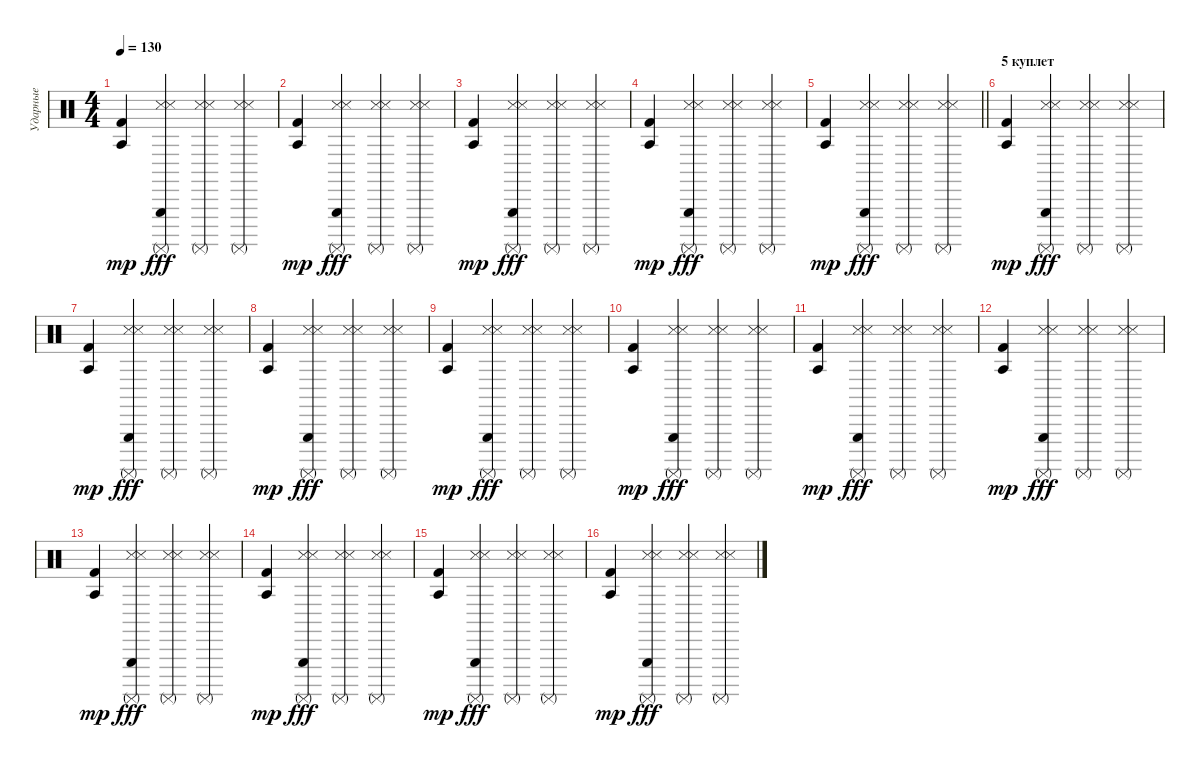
\track ("Ударные" "Ударные") {instrument percussion}
\staff {score}
\articulation defaults
\ts (4 4)
\tempo 130
\clef neutral
\ks c
("Kick (hit) 2" "Agogo tow (hit)").4{dy mp} ("Metronome (hit)" "Snare (side stick) 3" "Surdo (mute)" "Triangle (hit)").4{dy fff} ("Metronome (hit)" "Snare (side stick) 3" "Surdo (mute)").4 ("Metronome (hit)" "Snare (side stick) 3" "Surdo (mute)").4 |
("Kick (hit) 2" "Agogo tow (hit)").4{dy mp} ("Metronome (hit)" "Snare (side stick) 3" "Surdo (mute)" "Triangle (hit)").4{dy fff} ("Metronome (hit)" "Snare (side stick) 3" "Surdo (mute)").4 ("Metronome (hit)" "Snare (side stick) 3" "Surdo (mute)").4 |
("Kick (hit) 2" "Agogo tow (hit)").4{dy mp} ("Metronome (hit)" "Snare (side stick) 3" "Surdo (mute)" "Triangle (hit)").4{dy fff} ("Metronome (hit)" "Snare (side stick) 3" "Surdo (mute)").4 ("Metronome (hit)" "Snare (side stick) 3" "Surdo (mute)").4 |
("Kick (hit) 2" "Agogo tow (hit)").4{dy mp} ("Metronome (hit)" "Snare (side stick) 3" "Surdo (mute)" "Triangle (hit)").4{dy fff} ("Metronome (hit)" "Snare (side stick) 3" "Surdo (mute)").4 ("Metronome (hit)" "Snare (side stick) 3" "Surdo (mute)").4 |
\barLineRight lightlight
("Kick (hit) 2" "Agogo tow (hit)").4{dy mp} ("Metronome (hit)" "Snare (side stick) 3" "Surdo (mute)" "Triangle (hit)").4{dy fff} ("Metronome (hit)" "Snare (side stick) 3" "Surdo (mute)").4 ("Metronome (hit)" "Snare (side stick) 3" "Surdo (mute)").4 |
\section ("" "5 куплет")
("Kick (hit) 2" "Agogo tow (hit)").4{dy mp} ("Metronome (hit)" "Snare (side stick) 3" "Surdo (mute)" "Triangle (hit)").4{dy fff} ("Metronome (hit)" "Snare (side stick) 3" "Surdo (mute)").4 ("Metronome (hit)" "Snare (side stick) 3" "Surdo (mute)").4 |
("Kick (hit) 2" "Agogo tow (hit)").4{dy mp} ("Metronome (hit)" "Snare (side stick) 3" "Surdo (mute)" "Triangle (hit)").4{dy fff} ("Metronome (hit)" "Snare (side stick) 3" "Surdo (mute)").4 ("Metronome (hit)" "Snare (side stick) 3" "Surdo (mute)").4 |
("Kick (hit) 2" "Agogo tow (hit)").4{dy mp} ("Metronome (hit)" "Snare (side stick) 3" "Surdo (mute)" "Triangle (hit)").4{dy fff} ("Metronome (hit)" "Snare (side stick) 3" "Surdo (mute)").4 ("Metronome (hit)" "Snare (side stick) 3" "Surdo (mute)").4 |
("Kick (hit) 2" "Agogo tow (hit)").4{dy mp} ("Metronome (hit)" "Snare (side stick) 3" "Surdo (mute)" "Triangle (hit)").4{dy fff} ("Metronome (hit)" "Snare (side stick) 3" "Surdo (mute)").4 ("Metronome (hit)" "Snare (side stick) 3" "Surdo (mute)").4 |
("Kick (hit) 2" "Agogo tow (hit)").4{dy mp} ("Metronome (hit)" "Snare (side stick) 3" "Surdo (mute)" "Triangle (hit)").4{dy fff} ("Metronome (hit)" "Snare (side stick) 3" "Surdo (mute)").4 ("Metronome (hit)" "Snare (side stick) 3" "Surdo (mute)").4 |
("Kick (hit) 2" "Agogo tow (hit)").4{dy mp} ("Metronome (hit)" "Snare (side stick) 3" "Surdo (mute)" "Triangle (hit)").4{dy fff} ("Metronome (hit)" "Snare (side stick) 3" "Surdo (mute)").4 ("Metronome (hit)" "Snare (side stick) 3" "Surdo (mute)").4 |
("Kick (hit) 2" "Agogo tow (hit)").4{dy mp} ("Metronome (hit)" "Snare (side stick) 3" "Surdo (mute)" "Triangle (hit)").4{dy fff} ("Metronome (hit)" "Snare (side stick) 3" "Surdo (mute)").4 ("Metronome (hit)" "Snare (side stick) 3" "Surdo (mute)").4 |
("Kick (hit) 2" "Agogo tow (hit)").4{dy mp} ("Metronome (hit)" "Snare (side stick) 3" "Surdo (mute)" "Triangle (hit)").4{dy fff} ("Metronome (hit)" "Snare (side stick) 3" "Surdo (mute)").4 ("Metronome (hit)" "Snare (side stick) 3" "Surdo (mute)").4 |
("Kick (hit) 2" "Agogo tow (hit)").4{dy mp} ("Metronome (hit)" "Snare (side stick) 3" "Surdo (mute)" "Triangle (hit)").4{dy fff} ("Metronome (hit)" "Snare (side stick) 3" "Surdo (mute)").4 ("Metronome (hit)" "Snare (side stick) 3" "Surdo (mute)").4 |
("Kick (hit) 2" "Agogo tow (hit)").4{dy mp} ("Metronome (hit)" "Snare (side stick) 3" "Surdo (mute)" "Triangle (hit)").4{dy fff} ("Metronome (hit)" "Snare (side stick) 3" "Surdo (mute)").4 ("Metronome (hit)" "Snare (side stick) 3" "Surdo (mute)").4 |
("Kick (hit) 2" "Agogo tow (hit)").4{dy mp} ("Metronome (hit)" "Snare (side stick) 3" "Surdo (mute)" "Triangle (hit)").4{dy fff} ("Metronome (hit)" "Snare (side stick) 3" "Surdo (mute)").4 ("Metronome (hit)" "Snare (side stick) 3" "Surdo (mute)").4
